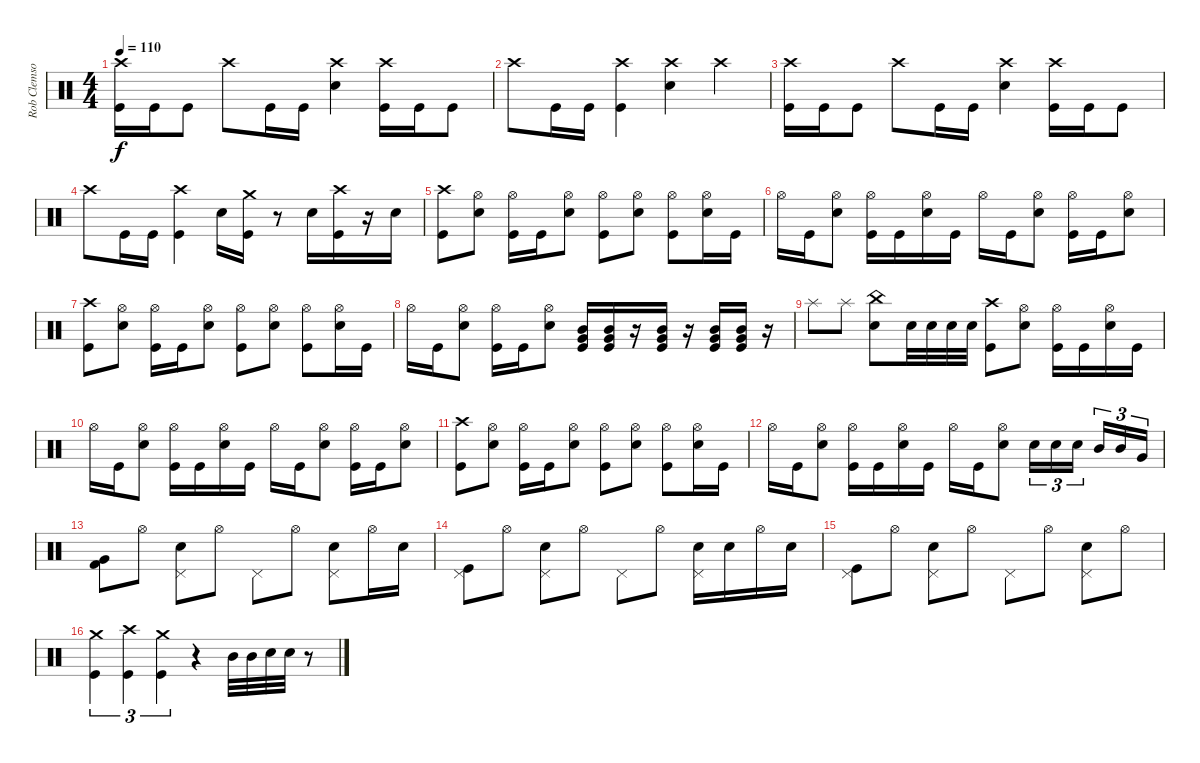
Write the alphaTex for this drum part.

\track ("Rob Clemson" "Rob Clemso") {instrument percussion}
\staff {score}
\articulation defaults
\ts (4 4)
\tempo 110
\clef neutral
\ks c
("Kick (hit)" "Crash high (hit)").16{dy f} "Kick (hit)".16 "Kick (hit)".8 "Crash high (hit)".8 "Kick (hit)".16 "Kick (hit)".16 ("Crash high (hit)" "Electric Snare (hit)").4 ("Kick (hit)" "Crash high (hit)").16 "Kick (hit)".16 "Kick (hit)".8 |
"Crash high (hit)".8 "Kick (hit)".16 "Kick (hit)".16 ("Kick (hit)" "Crash high (hit)").4 ("Crash high (hit)" "Electric Snare (hit)").4 "Crash high (hit)".4 |
("Kick (hit)" "Crash high (hit)").16 "Kick (hit)".16 "Kick (hit)".8 "Crash high (hit)".8 "Kick (hit)".16 "Kick (hit)".16 ("Crash high (hit)" "Electric Snare (hit)").4 ("Kick (hit)" "Crash high (hit)").16 "Kick (hit)".16 "Kick (hit)".8 |
"Crash high (hit)".8 "Kick (hit)".16 "Kick (hit)".16 ("Kick (hit)" "Crash high (hit)").4 "Electric Snare (hit)".16 ("Kick (hit)" "Crash medium (hit)").16 r.8 "Electric Snare (hit)".16 ("Kick (hit)" "Crash high (hit)").16 r.16 "Electric Snare (hit)".16 |
("Crash high (hit)" "Kick (hit)").8 ("Hi-Hat (open)" "Electric Snare (hit)").8 ("Hi-Hat (open)" "Kick (hit)").16 "Kick (hit)".16 ("Hi-Hat (open)" "Electric Snare (hit)").8 ("Hi-Hat (open)" "Kick (hit)").8 ("Hi-Hat (open)" "Electric Snare (hit)").8 ("Hi-Hat (open)" "Kick (hit)").8 ("Hi-Hat (open)" "Electric Snare (hit)").16 "Kick (hit)".16 |
"Hi-Hat (open)".16 "Kick (hit)".16 ("Hi-Hat (open)" "Electric Snare (hit)").8 ("Hi-Hat (open)" "Kick (hit)").16 "Kick (hit)".16 ("Hi-Hat (open)" "Electric Snare (hit)").16 "Kick (hit)".16 "Hi-Hat (open)".16 "Kick (hit)".16 ("Hi-Hat (open)" "Electric Snare (hit)").8 ("Hi-Hat (open)" "Kick (hit)").16 "Kick (hit)".16 ("Hi-Hat (open)" "Electric Snare (hit)").8 |
("Crash high (hit)" "Kick (hit)").8 ("Hi-Hat (open)" "Electric Snare (hit)").8 ("Hi-Hat (open)" "Kick (hit)").16 "Kick (hit)".16 ("Hi-Hat (open)" "Electric Snare (hit)").8 ("Hi-Hat (open)" "Kick (hit)").8 ("Hi-Hat (open)" "Electric Snare (hit)").8 ("Hi-Hat (open)" "Kick (hit)").8 ("Hi-Hat (open)" "Electric Snare (hit)").16 "Kick (hit)".16 |
"Hi-Hat (open)".16 "Kick (hit)".16 ("Hi-Hat (open)" "Electric Snare (hit)").8 ("Hi-Hat (open)" "Kick (hit)").16 "Kick (hit)".16 ("Hi-Hat (open)" "Electric Snare (hit)").8 ("Kick (hit)" "Very Low Tom (hit)" "Mid Tom (hit)").16 ("Kick (hit)" "Very Low Tom (hit)" "Mid Tom (hit)").16 r.16 ("Kick (hit)" "Very Low Tom (hit)" "Mid Tom (hit)").16 r.16 ("Kick (hit)" "Very Low Tom (hit)" "Mid Tom (hit)").16 ("Kick (hit)" "Very Low Tom (hit)" "Mid Tom (hit)").16 r.16 |
"Splash (hit)".8 "Splash (hit)".8 ("Electric Snare (hit)" "China (hit)").8 "Electric Snare (hit)".32 "Electric Snare (hit)".32 "Electric Snare (hit)".32 "Electric Snare (hit)".32 ("Crash high (hit)" "Kick (hit)").8 ("Hi-Hat (open)" "Electric Snare (hit)").8 ("Hi-Hat (open)" "Kick (hit)").16 "Kick (hit)".16 ("Hi-Hat (open)" "Electric Snare (hit)").16 "Kick (hit)".16 |
"Hi-Hat (open)".16 "Kick (hit)".16 ("Hi-Hat (open)" "Electric Snare (hit)").8 ("Hi-Hat (open)" "Kick (hit)").16 "Kick (hit)".16 ("Hi-Hat (open)" "Electric Snare (hit)").16 "Kick (hit)".16 "Hi-Hat (open)".16 "Kick (hit)".16 ("Hi-Hat (open)" "Electric Snare (hit)").8 ("Hi-Hat (open)" "Kick (hit)").16 "Kick (hit)".16 ("Hi-Hat (open)" "Electric Snare (hit)").8 |
("Crash high (hit)" "Kick (hit)").8 ("Hi-Hat (open)" "Electric Snare (hit)").8 ("Hi-Hat (open)" "Kick (hit)").16 "Kick (hit)".16 ("Hi-Hat (open)" "Electric Snare (hit)").8 ("Hi-Hat (open)" "Kick (hit)").8 ("Hi-Hat (open)" "Electric Snare (hit)").8 ("Hi-Hat (open)" "Kick (hit)").8 ("Hi-Hat (open)" "Electric Snare (hit)").16 "Kick (hit)".16 |
"Hi-Hat (open)".16 "Kick (hit)".16 ("Hi-Hat (open)" "Electric Snare (hit)").8 ("Hi-Hat (open)" "Kick (hit)").16 "Kick (hit)".16 ("Hi-Hat (open)" "Electric Snare (hit)").16 "Kick (hit)".16 "Hi-Hat (open)".16 "Kick (hit)".16 ("Hi-Hat (open)" "Electric Snare (hit)").8 "Electric Snare (hit)".16{tu (3 2)} "Electric Snare (hit)".16{tu (3 2)} "Electric Snare (hit)".16{tu (3 2) beam splitsecondary} "Mid Tom (hit)".16{tu (3 2)} "Mid Tom (hit)".16{tu (3 2)} "Very Low Tom (hit)".16{tu (3 2)} |
("Very Low Tom (hit)" "Kick (hit) 2").8 "Hi-Hat (open)".8 ("Pedal Hi-Hat (hit)" "Electric Snare (hit)").8 "Hi-Hat (open)".8 "Pedal Hi-Hat (hit)".8 "Hi-Hat (open)".8 ("Pedal Hi-Hat (hit)" "Electric Snare (hit)").8 "Hi-Hat (open)".16 "Electric Snare (hit)".16 |
("Kick (hit)" "Pedal Hi-Hat (hit)").8 "Hi-Hat (open)".8 ("Pedal Hi-Hat (hit)" "Electric Snare (hit)").8 "Hi-Hat (open)".8 "Pedal Hi-Hat (hit)".8 "Hi-Hat (open)".8 ("Pedal Hi-Hat (hit)" "Electric Snare (hit)").16 "Electric Snare (hit)".16 "Hi-Hat (open)".16 "Electric Snare (hit)".16 |
("Kick (hit)" "Pedal Hi-Hat (hit)").8 "Hi-Hat (open)".8 ("Pedal Hi-Hat (hit)" "Electric Snare (hit)").8 "Hi-Hat (open)".8 "Pedal Hi-Hat (hit)".8 "Hi-Hat (open)".8 ("Pedal Hi-Hat (hit)" "Electric Snare (hit)").8 "Hi-Hat (open)".8 |
("Crash medium (hit)" "Kick (hit)").4{tu (3 2)} ("Crash high (hit)" "Kick (hit)").4{tu (3 2)} ("Crash medium (hit)" "Kick (hit)").4{tu (3 2)} r.4 "Mid Tom (hit)".32 "Mid Tom (hit)".32 "Electric Snare (hit)".32 "Electric Snare (hit)".32 r.8
